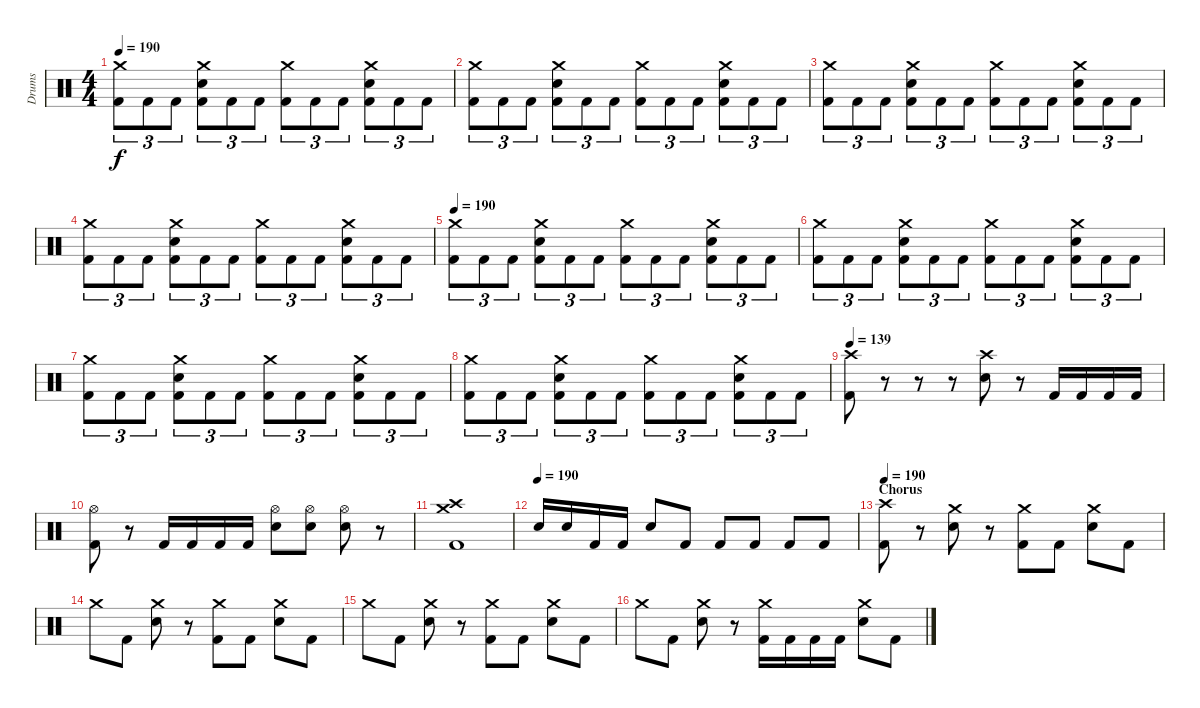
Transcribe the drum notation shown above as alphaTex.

\track ("Drums" "Drums") {instrument percussion}
\staff {score}
\articulation defaults
\ts (4 4)
\tempo 190
\clef neutral
\ks c
("Crash medium (hit)" "Kick (hit) 2").8{tu (3 2) dy f} "Kick (hit) 2".8{tu (3 2)} "Kick (hit) 2".8{tu (3 2)} ("Crash medium (hit)" "Electric Snare (hit)" "Kick (hit) 2").8{tu (3 2)} "Kick (hit) 2".8{tu (3 2)} "Kick (hit) 2".8{tu (3 2)} ("Crash medium (hit)" "Kick (hit) 2").8{tu (3 2)} "Kick (hit) 2".8{tu (3 2)} "Kick (hit) 2".8{tu (3 2)} ("Crash medium (hit)" "Electric Snare (hit)" "Kick (hit) 2").8{tu (3 2)} "Kick (hit) 2".8{tu (3 2)} "Kick (hit) 2".8{tu (3 2)} |
("Crash medium (hit)" "Kick (hit) 2").8{tu (3 2)} "Kick (hit) 2".8{tu (3 2)} "Kick (hit) 2".8{tu (3 2)} ("Crash medium (hit)" "Electric Snare (hit)" "Kick (hit) 2").8{tu (3 2)} "Kick (hit) 2".8{tu (3 2)} "Kick (hit) 2".8{tu (3 2)} ("Crash medium (hit)" "Kick (hit) 2").8{tu (3 2)} "Kick (hit) 2".8{tu (3 2)} "Kick (hit) 2".8{tu (3 2)} ("Crash medium (hit)" "Electric Snare (hit)" "Kick (hit) 2").8{tu (3 2)} "Kick (hit) 2".8{tu (3 2)} "Kick (hit) 2".8{tu (3 2)} |
("Crash medium (hit)" "Kick (hit) 2").8{tu (3 2)} "Kick (hit) 2".8{tu (3 2)} "Kick (hit) 2".8{tu (3 2)} ("Crash medium (hit)" "Electric Snare (hit)" "Kick (hit) 2").8{tu (3 2)} "Kick (hit) 2".8{tu (3 2)} "Kick (hit) 2".8{tu (3 2)} ("Crash medium (hit)" "Kick (hit) 2").8{tu (3 2)} "Kick (hit) 2".8{tu (3 2)} "Kick (hit) 2".8{tu (3 2)} ("Crash medium (hit)" "Electric Snare (hit)" "Kick (hit) 2").8{tu (3 2)} "Kick (hit) 2".8{tu (3 2)} "Kick (hit) 2".8{tu (3 2)} |
("Crash medium (hit)" "Kick (hit) 2").8{tu (3 2)} "Kick (hit) 2".8{tu (3 2)} "Kick (hit) 2".8{tu (3 2)} ("Crash medium (hit)" "Electric Snare (hit)" "Kick (hit) 2").8{tu (3 2)} "Kick (hit) 2".8{tu (3 2)} "Kick (hit) 2".8{tu (3 2)} ("Crash medium (hit)" "Kick (hit) 2").8{tu (3 2)} "Kick (hit) 2".8{tu (3 2)} "Kick (hit) 2".8{tu (3 2)} ("Crash medium (hit)" "Electric Snare (hit)" "Kick (hit) 2").8{tu (3 2)} "Kick (hit) 2".8{tu (3 2)} "Kick (hit) 2".8{tu (3 2)} |
\tempo 190
("Crash medium (hit)" "Kick (hit) 2").8{tu (3 2)} "Kick (hit) 2".8{tu (3 2)} "Kick (hit) 2".8{tu (3 2)} ("Crash medium (hit)" "Electric Snare (hit)" "Kick (hit) 2").8{tu (3 2)} "Kick (hit) 2".8{tu (3 2)} "Kick (hit) 2".8{tu (3 2)} ("Crash medium (hit)" "Kick (hit) 2").8{tu (3 2)} "Kick (hit) 2".8{tu (3 2)} "Kick (hit) 2".8{tu (3 2)} ("Crash medium (hit)" "Electric Snare (hit)" "Kick (hit) 2").8{tu (3 2)} "Kick (hit) 2".8{tu (3 2)} "Kick (hit) 2".8{tu (3 2)} |
("Crash medium (hit)" "Kick (hit) 2").8{tu (3 2)} "Kick (hit) 2".8{tu (3 2)} "Kick (hit) 2".8{tu (3 2)} ("Crash medium (hit)" "Electric Snare (hit)" "Kick (hit) 2").8{tu (3 2)} "Kick (hit) 2".8{tu (3 2)} "Kick (hit) 2".8{tu (3 2)} ("Crash medium (hit)" "Kick (hit) 2").8{tu (3 2)} "Kick (hit) 2".8{tu (3 2)} "Kick (hit) 2".8{tu (3 2)} ("Crash medium (hit)" "Electric Snare (hit)" "Kick (hit) 2").8{tu (3 2)} "Kick (hit) 2".8{tu (3 2)} "Kick (hit) 2".8{tu (3 2)} |
("Crash medium (hit)" "Kick (hit) 2").8{tu (3 2)} "Kick (hit) 2".8{tu (3 2)} "Kick (hit) 2".8{tu (3 2)} ("Crash medium (hit)" "Electric Snare (hit)" "Kick (hit) 2").8{tu (3 2)} "Kick (hit) 2".8{tu (3 2)} "Kick (hit) 2".8{tu (3 2)} ("Crash medium (hit)" "Kick (hit) 2").8{tu (3 2)} "Kick (hit) 2".8{tu (3 2)} "Kick (hit) 2".8{tu (3 2)} ("Crash medium (hit)" "Electric Snare (hit)" "Kick (hit) 2").8{tu (3 2)} "Kick (hit) 2".8{tu (3 2)} "Kick (hit) 2".8{tu (3 2)} |
("Crash medium (hit)" "Kick (hit) 2").8{tu (3 2)} "Kick (hit) 2".8{tu (3 2)} "Kick (hit) 2".8{tu (3 2)} ("Crash medium (hit)" "Electric Snare (hit)" "Kick (hit) 2").8{tu (3 2)} "Kick (hit) 2".8{tu (3 2)} "Kick (hit) 2".8{tu (3 2)} ("Crash medium (hit)" "Kick (hit) 2").8{tu (3 2)} "Kick (hit) 2".8{tu (3 2)} "Kick (hit) 2".8{tu (3 2)} ("Crash medium (hit)" "Electric Snare (hit)" "Kick (hit) 2").8{tu (3 2)} "Kick (hit) 2".8{tu (3 2)} "Kick (hit) 2".8{tu (3 2)} |
\tempo 139
("Crash high (hit)" "Kick (hit) 2").8 r.8 r.8 r.8 ("Crash high (hit)" "Electric Snare (hit)").8 r.8 "Kick (hit) 2".16 "Kick (hit) 2".16 "Kick (hit) 2".16 "Kick (hit) 2".16 |
("Hi-Hat (open)" "Kick (hit) 2").8 r.8 "Kick (hit) 2".16 "Kick (hit) 2".16 "Kick (hit) 2".16 "Kick (hit) 2".16 ("Hi-Hat (open)" "Electric Snare (hit)").8 ("Hi-Hat (open)" "Electric Snare (hit)").8 ("Hi-Hat (open)" "Electric Snare (hit)").8 r.8 |
("Crash high (hit)" "Crash medium (hit)" "Kick (hit) 2").1 |
\tempo (190)
"Electric Snare (hit)".16 "Electric Snare (hit)".16 "Kick (hit) 2".16 "Kick (hit) 2".16 "Electric Snare (hit)".8 "Kick (hit) 2".8 "Kick (hit) 2".8 "Kick (hit) 2".8 "Kick (hit) 2".8 "Kick (hit) 2".8 |
\section ("" "Chorus")
\tempo 190
("Crash high (hit)" "Kick (hit) 2").8 r.8 ("Crash medium (hit)" "Electric Snare (hit)").8 r.8 ("Crash medium (hit)" "Kick (hit) 2").8 "Kick (hit) 2".8 ("Crash medium (hit)" "Electric Snare (hit)").8 "Kick (hit) 2".8 |
"Crash medium (hit)".8 "Kick (hit) 2".8 ("Crash medium (hit)" "Electric Snare (hit)").8 r.8 ("Crash medium (hit)" "Kick (hit) 2").8 "Kick (hit) 2".8 ("Crash medium (hit)" "Electric Snare (hit)").8 "Kick (hit) 2".8 |
"Crash medium (hit)".8 "Kick (hit) 2".8 ("Crash medium (hit)" "Electric Snare (hit)").8 r.8 ("Crash medium (hit)" "Kick (hit) 2").8 "Kick (hit) 2".8 ("Crash medium (hit)" "Electric Snare (hit)").8 "Kick (hit) 2".8 |
"Crash medium (hit)".8 "Kick (hit) 2".8 ("Crash medium (hit)" "Electric Snare (hit)").8 r.8 ("Crash medium (hit)" "Kick (hit) 2").16 "Kick (hit) 2".16 "Kick (hit) 2".16 "Kick (hit) 2".16 ("Crash medium (hit)" "Electric Snare (hit)").8 "Kick (hit) 2".8
